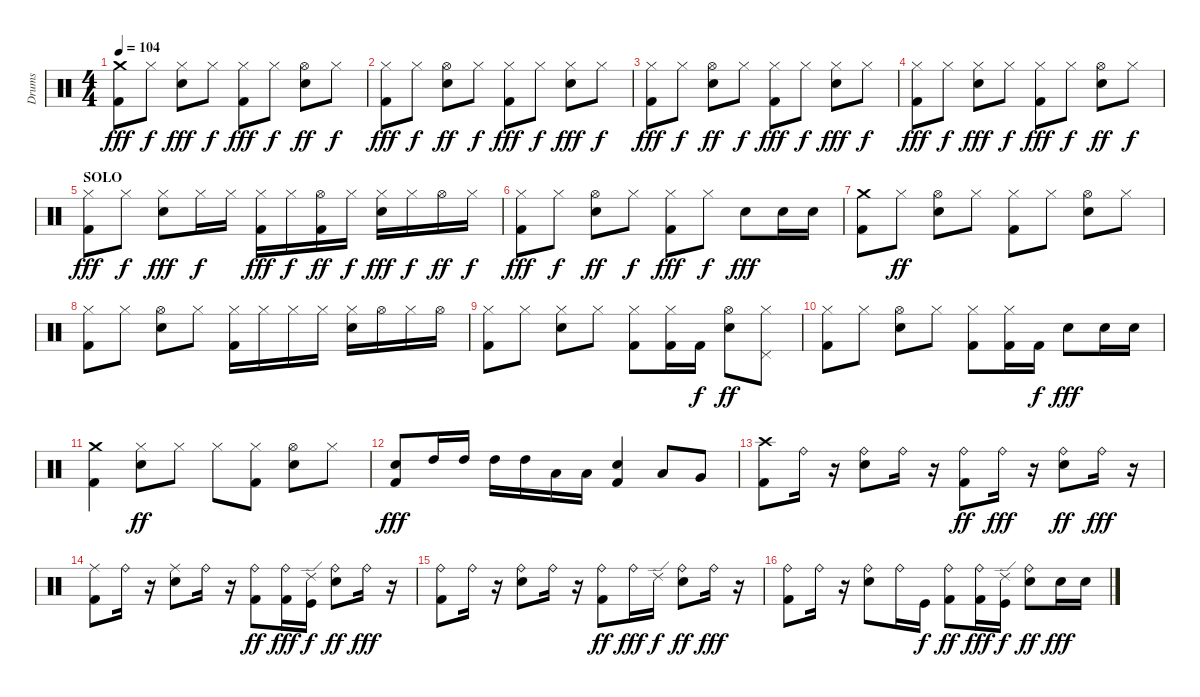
\track ("Drums" "Drums") {instrument percussion}
\staff {score}
\articulation defaults
\ts (4 4)
\tempo 104
\clef neutral
\ks c
("Crash medium (hit)" "Kick (hit) 2").8{dy fff} "Hi-Hat (closed)".8{dy f} ("Electric Snare (hit)" "Hi-Hat (closed)").8{dy fff} "Hi-Hat (closed)".8{dy f} ("Kick (hit) 2" "Hi-Hat (closed)").8{dy fff} "Hi-Hat (closed)".8{dy f} ("Electric Snare (hit)" "Hi-Hat (open)").8{dy ff} "Hi-Hat (closed)".8{dy f} |
("Kick (hit) 2" "Hi-Hat (closed)").8{dy fff} "Hi-Hat (closed)".8{dy f} ("Electric Snare (hit)" "Hi-Hat (open)").8{dy ff} "Hi-Hat (closed)".8{dy f} ("Kick (hit) 2" "Hi-Hat (closed)").8{dy fff} "Hi-Hat (closed)".8{dy f} ("Electric Snare (hit)" "Hi-Hat (closed)").8{dy fff} "Hi-Hat (closed)".8{dy f} |
("Kick (hit) 2" "Hi-Hat (closed)").8{dy fff} "Hi-Hat (closed)".8{dy f} ("Electric Snare (hit)" "Hi-Hat (open)").8{dy ff} "Hi-Hat (closed)".8{dy f} ("Kick (hit) 2" "Hi-Hat (closed)").8{dy fff} "Hi-Hat (closed)".8{dy f} ("Electric Snare (hit)" "Hi-Hat (closed)").8{dy fff} "Hi-Hat (closed)".8{dy f} |
("Kick (hit) 2" "Hi-Hat (closed)").8{dy fff} "Hi-Hat (closed)".8{dy f} ("Electric Snare (hit)" "Hi-Hat (closed)").8{dy fff} "Hi-Hat (closed)".8{dy f} ("Kick (hit) 2" "Hi-Hat (closed)").8{dy fff} "Hi-Hat (closed)".8{dy f} ("Electric Snare (hit)" "Hi-Hat (open)").8{dy ff} "Hi-Hat (closed)".8{dy f} |
\section ("" "SOLO")
("Kick (hit) 2" "Hi-Hat (closed)").8{dy fff} "Hi-Hat (closed)".8{dy f} ("Electric Snare (hit)" "Hi-Hat (closed)").8{dy fff} "Hi-Hat (closed)".16{dy f} "Hi-Hat (closed)".16 ("Kick (hit) 2" "Hi-Hat (closed)").16{dy fff} "Hi-Hat (closed)".16{dy f} ("Kick (hit) 2" "Hi-Hat (open)").16{dy ff} "Hi-Hat (closed)".16{dy f} ("Electric Snare (hit)" "Hi-Hat (closed)").16{dy fff} "Hi-Hat (closed)".16{dy f} "Hi-Hat (open)".16{dy ff} "Hi-Hat (closed)".16{dy f} |
("Kick (hit) 2" "Hi-Hat (closed)").8{dy fff} "Hi-Hat (closed)".8{dy f} ("Electric Snare (hit)" "Hi-Hat (open)").8{dy ff} "Hi-Hat (closed)".8{dy f} ("Kick (hit) 2" "Hi-Hat (closed)").8{dy fff} "Hi-Hat (closed)".8{dy f} "Electric Snare (hit)".8{dy fff} "Electric Snare (hit)".16 "Electric Snare (hit)".16 |
("Crash medium (hit)" "Kick (hit) 2").8 "Hi-Hat (closed)".8{dy ff} ("Electric Snare (hit)" "Hi-Hat (open)").8 "Hi-Hat (closed)".8 ("Kick (hit) 2" "Hi-Hat (closed)").8 "Hi-Hat (closed)".8 ("Electric Snare (hit)" "Hi-Hat (open)").8 "Hi-Hat (closed)".8 |
("Kick (hit) 2" "Hi-Hat (closed)").8 "Hi-Hat (closed)".8 ("Electric Snare (hit)" "Hi-Hat (open)").8 "Hi-Hat (closed)".8 ("Kick (hit) 2" "Hi-Hat (closed)").16 "Hi-Hat (closed)".16 "Hi-Hat (closed)".16 "Hi-Hat (closed)".16 ("Electric Snare (hit)" "Hi-Hat (closed)").16 "Hi-Hat (open)".16 "Hi-Hat (closed)".16 "Hi-Hat (open)".16 |
("Kick (hit) 2" "Hi-Hat (closed)").8 "Hi-Hat (closed)".8 ("Electric Snare (hit)" "Hi-Hat (closed)").8 "Hi-Hat (closed)".8 ("Kick (hit) 2" "Hi-Hat (closed)").8 ("Kick (hit) 2" "Hi-Hat (closed)").16 "Kick (hit) 2".16{dy f} ("Electric Snare (hit)" "Hi-Hat (open)").8{dy ff} ("Pedal Hi-Hat (hit)" "Hi-Hat (closed)").8 |
("Kick (hit) 2" "Hi-Hat (closed)").8 "Hi-Hat (closed)".8 ("Electric Snare (hit)" "Hi-Hat (open)").8 "Hi-Hat (closed)".8 ("Kick (hit) 2" "Hi-Hat (closed)").8 ("Kick (hit) 2" "Hi-Hat (closed)").16 "Kick (hit) 2".16{dy f} "Electric Snare (hit)".8{dy fff} "Electric Snare (hit)".16 "Electric Snare (hit)".16 |
("Crash medium (hit)" "Kick (hit) 2").4 ("Electric Snare (hit)" "Hi-Hat (closed)").8{dy ff} "Hi-Hat (closed)".8 "Hi-Hat (closed)".8 ("Kick (hit) 2" "Hi-Hat (closed)").8 ("Electric Snare (hit)" "Hi-Hat (open)").8 "Hi-Hat (closed)".8 |
("Kick (hit) 2" "Electric Snare (hit)").8{dy fff} "High Tom (hit)".16 "High Tom (hit)".16 "High Tom (hit)".16 "High Tom (hit)".16 "Low Tom (hit)".16 "Low Tom (hit)".16 ("Electric Snare (hit)" "Kick (hit) 2").4 "Low Tom (hit)".8 "Very Low Tom (hit)".8 |
("Crash high (hit)" "Kick (hit) 2").8 "Ride (bell)".16 r.16 ("Electric Snare (hit)" "Ride (bell)").8 "Ride (bell)".16 r.16 ("Kick (hit) 2" "Ride (bell)").8{dy ff} "Ride (bell)".16{dy fff} r.16 ("Electric Snare (hit)" "Ride (bell)").8{dy ff} "Ride (bell)".16{dy fff} r.16 |
("Kick (hit) 2" "Ride (middle)").8 "Ride (bell)".16 r.16 ("Electric Snare (hit)" "Ride (middle)").8 "Ride (bell)".16 r.16 ("Kick (hit) 2" "Ride (bell)").8{dy ff} ("Kick (hit) 2" "Ride (bell)").16{dy fff} ("Ride (edge) 2" "Kick (hit)").16{dy f} ("Electric Snare (hit)" "Ride (bell)").8{dy ff} "Ride (bell)".16{dy fff} r.16 |
("Kick (hit) 2" "Ride (bell)").8 "Ride (bell)".16 r.16 ("Electric Snare (hit)" "Ride (bell)").8 "Ride (bell)".16 r.16 ("Kick (hit) 2" "Ride (bell)").8{dy ff} "Ride (bell)".16{dy fff} "Ride (edge) 2".16{dy f} ("Electric Snare (hit)" "Ride (bell)").8{dy ff} "Ride (bell)".16{dy fff} r.16 |
("Kick (hit) 2" "Ride (bell)").8 "Ride (bell)".16 r.16 ("Electric Snare (hit)" "Ride (bell)").8 "Ride (bell)".16 "Kick (hit)".16{dy f} ("Kick (hit) 2" "Ride (bell)").8{dy ff} ("Kick (hit) 2" "Ride (bell)").16{dy fff} ("Ride (edge) 2" "Kick (hit)").16{dy f} ("Electric Snare (hit)" "Ride (bell)").8{dy ff} "Electric Snare (hit)".16{dy fff} "Electric Snare (hit)".16
